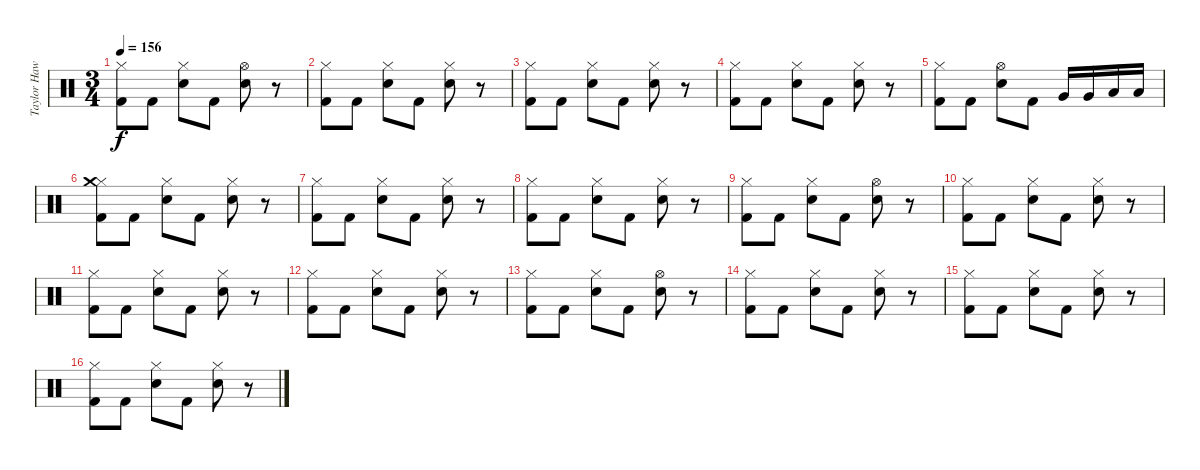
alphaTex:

\track ("Taylor Hawkins" "Taylor Haw") {instrument percussion}
\staff {score}
\articulation defaults
\ts (3 4)
\tempo 156
\clef neutral
\ks c
("Hi-Hat (closed)" "Kick (hit) 2").8{dy f} "Kick (hit) 2".8 ("Hi-Hat (closed)" "Electric Snare (hit)").8 "Kick (hit) 2".8 ("Hi-Hat (open)" "Electric Snare (hit)").8 r.8 |
("Hi-Hat (closed)" "Kick (hit) 2").8 "Kick (hit) 2".8 ("Hi-Hat (closed)" "Electric Snare (hit)").8 "Kick (hit) 2".8 ("Hi-Hat (closed)" "Electric Snare (hit)").8 r.8 |
("Hi-Hat (closed)" "Kick (hit) 2").8 "Kick (hit) 2".8 ("Hi-Hat (closed)" "Electric Snare (hit)").8 "Kick (hit) 2".8 ("Hi-Hat (closed)" "Electric Snare (hit)").8 r.8 |
("Hi-Hat (closed)" "Kick (hit) 2").8 "Kick (hit) 2".8 ("Hi-Hat (closed)" "Electric Snare (hit)").8 "Kick (hit) 2".8 ("Hi-Hat (closed)" "Electric Snare (hit)").8 r.8 |
("Hi-Hat (closed)" "Kick (hit) 2").8 "Kick (hit) 2".8 ("Hi-Hat (open)" "Electric Snare (hit)").8 "Kick (hit) 2".8 "Very Low Tom (hit)".16 "Very Low Tom (hit)".16 "Low Floor Tom (hit)".16 "Low Floor Tom (hit)".16 |
("Hi-Hat (closed)" "Crash medium (hit)" "Kick (hit) 2").8 "Kick (hit) 2".8 ("Hi-Hat (closed)" "Electric Snare (hit)").8 "Kick (hit) 2".8 ("Hi-Hat (closed)" "Electric Snare (hit)").8 r.8 |
("Hi-Hat (closed)" "Kick (hit) 2").8 "Kick (hit) 2".8 ("Hi-Hat (closed)" "Electric Snare (hit)").8 "Kick (hit) 2".8 ("Hi-Hat (closed)" "Electric Snare (hit)").8 r.8 |
("Hi-Hat (closed)" "Kick (hit) 2").8 "Kick (hit) 2".8 ("Hi-Hat (closed)" "Electric Snare (hit)").8 "Kick (hit) 2".8 ("Hi-Hat (closed)" "Electric Snare (hit)").8 r.8 |
("Hi-Hat (closed)" "Kick (hit) 2").8 "Kick (hit) 2".8 ("Hi-Hat (closed)" "Electric Snare (hit)").8 "Kick (hit) 2".8 ("Hi-Hat (open)" "Electric Snare (hit)").8 r.8 |
("Hi-Hat (closed)" "Kick (hit) 2").8 "Kick (hit) 2".8 ("Hi-Hat (closed)" "Electric Snare (hit)").8 "Kick (hit) 2".8 ("Hi-Hat (closed)" "Electric Snare (hit)").8 r.8 |
("Hi-Hat (closed)" "Kick (hit) 2").8 "Kick (hit) 2".8 ("Hi-Hat (closed)" "Electric Snare (hit)").8 "Kick (hit) 2".8 ("Hi-Hat (closed)" "Electric Snare (hit)").8 r.8 |
("Hi-Hat (closed)" "Kick (hit) 2").8 "Kick (hit) 2".8 ("Hi-Hat (closed)" "Electric Snare (hit)").8 "Kick (hit) 2".8 ("Hi-Hat (closed)" "Electric Snare (hit)").8 r.8 |
("Hi-Hat (closed)" "Kick (hit) 2").8 "Kick (hit) 2".8 ("Hi-Hat (closed)" "Electric Snare (hit)").8 "Kick (hit) 2".8 ("Hi-Hat (open)" "Electric Snare (hit)").8 r.8 |
("Hi-Hat (closed)" "Kick (hit) 2").8 "Kick (hit) 2".8 ("Hi-Hat (closed)" "Electric Snare (hit)").8 "Kick (hit) 2".8 ("Hi-Hat (closed)" "Electric Snare (hit)").8 r.8 |
("Hi-Hat (closed)" "Kick (hit) 2").8 "Kick (hit) 2".8 ("Hi-Hat (closed)" "Electric Snare (hit)").8 "Kick (hit) 2".8 ("Hi-Hat (closed)" "Electric Snare (hit)").8 r.8 |
("Hi-Hat (closed)" "Kick (hit) 2").8 "Kick (hit) 2".8 ("Hi-Hat (closed)" "Electric Snare (hit)").8 "Kick (hit) 2".8 ("Hi-Hat (closed)" "Electric Snare (hit)").8 r.8
